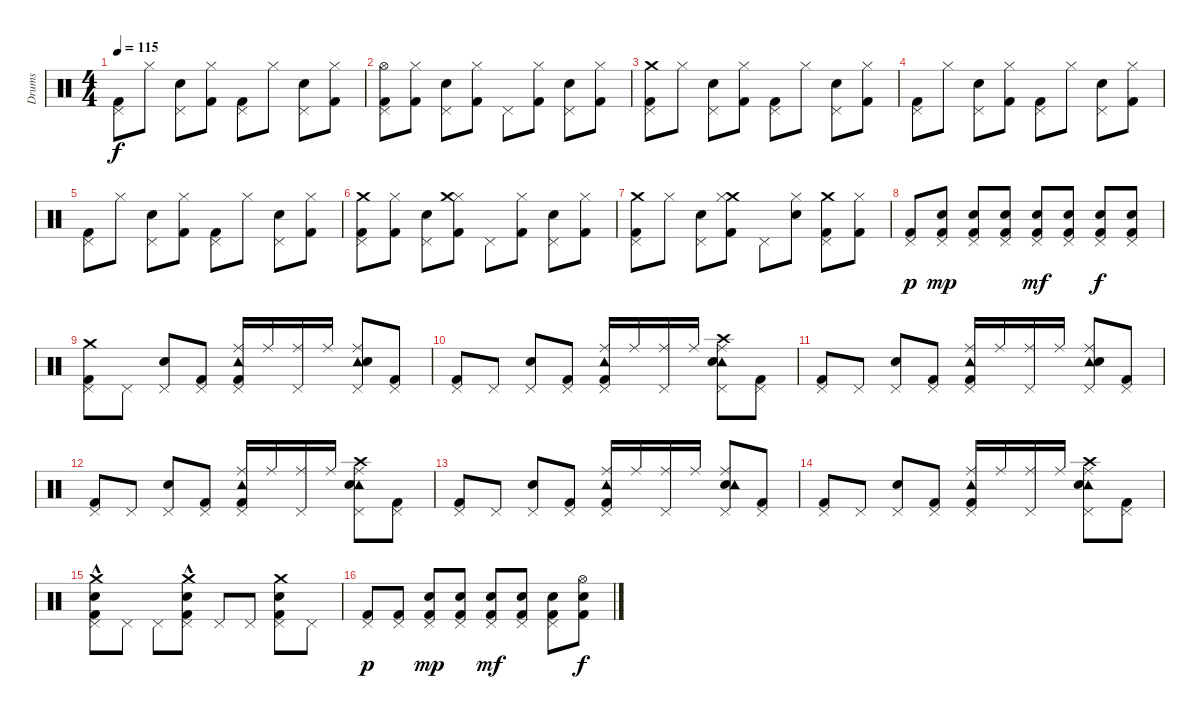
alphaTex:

\track ("Drums" "Drums") {instrument percussion}
\staff {score}
\articulation defaults
\ts (4 4)
\tempo 115
\clef neutral
\ks c
("Pedal Hi-Hat (hit)" "Kick (hit) 2").8{dy f} "Hi-Hat (closed)".8 ("Pedal Hi-Hat (hit)" "Snare (hit) 2").8 ("Hi-Hat (closed)" "Kick (hit) 2").8 ("Pedal Hi-Hat (hit)" "Kick (hit) 2").8 "Hi-Hat (closed)".8 ("Pedal Hi-Hat (hit)" "Snare (hit) 2").8 ("Hi-Hat (closed)" "Kick (hit) 2").8 |
("Hi-Hat (open)" "Pedal Hi-Hat (hit)" "Kick (hit) 2").8 ("Hi-Hat (closed)" "Kick (hit) 2").8 ("Pedal Hi-Hat (hit)" "Snare (hit) 2").8 ("Hi-Hat (closed)" "Kick (hit) 2").8 "Pedal Hi-Hat (hit)".8 ("Hi-Hat (closed)" "Kick (hit) 2").8 ("Pedal Hi-Hat (hit)" "Snare (hit) 2").8 ("Hi-Hat (closed)" "Kick (hit) 2").8 |
("Crash medium (hit)" "Kick (hit) 2" "Pedal Hi-Hat (hit)").8 "Hi-Hat (closed)".8 ("Snare (hit) 2" "Pedal Hi-Hat (hit)").8 ("Kick (hit) 2" "Hi-Hat (closed)").8 ("Kick (hit) 2" "Pedal Hi-Hat (hit)").8 "Hi-Hat (closed)".8 ("Snare (hit) 2" "Pedal Hi-Hat (hit)").8 ("Kick (hit) 2" "Hi-Hat (closed)").8 |
("Pedal Hi-Hat (hit)" "Kick (hit) 2").8 "Hi-Hat (closed)".8 ("Snare (hit) 2" "Pedal Hi-Hat (hit)").8 ("Kick (hit) 2" "Hi-Hat (closed)").8 ("Kick (hit) 2" "Pedal Hi-Hat (hit)").8 "Hi-Hat (closed)".8 ("Snare (hit) 2" "Pedal Hi-Hat (hit)").8 ("Kick (hit) 2" "Hi-Hat (closed)").8 |
("Kick (hit) 2" "Pedal Hi-Hat (hit)").8 "Hi-Hat (closed)".8 ("Snare (hit) 2" "Pedal Hi-Hat (hit)").8 ("Kick (hit) 2" "Hi-Hat (closed)").8 ("Kick (hit) 2" "Pedal Hi-Hat (hit)").8 "Hi-Hat (closed)".8 ("Snare (hit) 2" "Pedal Hi-Hat (hit)").8 ("Kick (hit) 2" "Hi-Hat (closed)").8 |
("Crash medium (hit)" "Kick (hit) 2" "Pedal Hi-Hat (hit)").8 ("Kick (hit) 2" "Hi-Hat (closed)").8 ("Snare (hit) 2" "Pedal Hi-Hat (hit)").8 ("Kick (hit) 2" "Hi-Hat (closed)" "Crash medium (hit)").8 "Pedal Hi-Hat (hit)".8 ("Kick (hit) 2" "Hi-Hat (closed)").8 ("Snare (hit) 2" "Pedal Hi-Hat (hit)").8 ("Kick (hit) 2" "Hi-Hat (closed)").8 |
("Crash medium (hit)" "Kick (hit) 2" "Pedal Hi-Hat (hit)").8 "Hi-Hat (closed)".8 ("Snare (hit) 2" "Pedal Hi-Hat (hit)").8 ("Crash medium (hit)" "Kick (hit) 2" "Hi-Hat (closed)").8 "Pedal Hi-Hat (hit)".8 ("Snare (hit) 2" "Hi-Hat (closed)").8 ("Crash medium (hit)" "Kick (hit) 2" "Pedal Hi-Hat (hit)").8 ("Kick (hit) 2" "Hi-Hat (closed)").8 |
("Pedal Hi-Hat (hit)" "Kick (hit) 2").8{dy p} ("Pedal Hi-Hat (hit)" "Kick (hit) 2" "Snare (hit) 2").8{dy mp} ("Pedal Hi-Hat (hit)" "Kick (hit) 2" "Snare (hit) 2").8 ("Pedal Hi-Hat (hit)" "Kick (hit) 2" "Snare (hit) 2").8 ("Pedal Hi-Hat (hit)" "Kick (hit) 2" "Snare (hit) 2").8{dy mf} ("Pedal Hi-Hat (hit)" "Kick (hit) 2" "Snare (hit) 2").8 ("Pedal Hi-Hat (hit)" "Kick (hit) 2" "Snare (hit) 2").8{dy f} ("Pedal Hi-Hat (hit)" "Kick (hit) 2" "Snare (hit) 2").8 |
("Crash medium (hit)" "Pedal Hi-Hat (hit)" "Kick (hit) 2").8 "Pedal Hi-Hat (hit)".8 ("Pedal Hi-Hat (hit)" "Snare (hit) 2").8 ("Pedal Hi-Hat (hit)" "Kick (hit) 2").8 ("Tambourine (hit)" "Ride (middle)" "Pedal Hi-Hat (hit)" "Kick (hit) 2").16 "Ride (middle)".16 ("Ride (middle)" "Pedal Hi-Hat (hit)").16 "Ride (middle)".16 ("Tambourine (hit)" "Ride (middle)" "Pedal Hi-Hat (hit)" "Snare (hit) 2").8 ("Pedal Hi-Hat (hit)" "Kick (hit) 2").8 |
("Pedal Hi-Hat (hit)" "Kick (hit) 2").8 "Pedal Hi-Hat (hit)".8 ("Pedal Hi-Hat (hit)" "Snare (hit) 2").8 ("Pedal Hi-Hat (hit)" "Kick (hit) 2").8 ("Ride (middle)" "Tambourine (hit)" "Pedal Hi-Hat (hit)" "Kick (hit) 2").16 "Ride (middle)".16 ("Ride (middle)" "Pedal Hi-Hat (hit)").16 "Ride (middle)".16 ("Ride (middle)" "Tambourine (hit)" "Crash high (hit)" "Pedal Hi-Hat (hit)" "Snare (hit) 2").8 ("Pedal Hi-Hat (hit)" "Kick (hit) 2").8 |
("Pedal Hi-Hat (hit)" "Kick (hit) 2").8 "Pedal Hi-Hat (hit)".8 ("Pedal Hi-Hat (hit)" "Snare (hit) 2").8 ("Pedal Hi-Hat (hit)" "Kick (hit) 2").8 ("Ride (middle)" "Tambourine (hit)" "Pedal Hi-Hat (hit)" "Kick (hit) 2").16 "Ride (middle)".16 ("Ride (middle)" "Pedal Hi-Hat (hit)").16 "Ride (middle)".16 ("Ride (middle)" "Tambourine (hit)" "Pedal Hi-Hat (hit)" "Snare (hit) 2").8 ("Pedal Hi-Hat (hit)" "Kick (hit) 2").8 |
("Pedal Hi-Hat (hit)" "Kick (hit) 2").8 "Pedal Hi-Hat (hit)".8 ("Pedal Hi-Hat (hit)" "Snare (hit) 2").8 ("Pedal Hi-Hat (hit)" "Kick (hit) 2").8 ("Ride (middle)" "Tambourine (hit)" "Pedal Hi-Hat (hit)" "Kick (hit) 2").16 "Ride (middle)".16 ("Ride (middle)" "Pedal Hi-Hat (hit)").16 "Ride (middle)".16 ("Ride (middle)" "Tambourine (hit)" "Crash high (hit)" "Pedal Hi-Hat (hit)" "Snare (hit) 2").8 ("Pedal Hi-Hat (hit)" "Kick (hit) 2").8 |
("Pedal Hi-Hat (hit)" "Kick (hit) 2").8 "Pedal Hi-Hat (hit)".8 ("Pedal Hi-Hat (hit)" "Snare (hit) 2").8 ("Pedal Hi-Hat (hit)" "Kick (hit) 2").8 ("Ride (middle)" "Tambourine (hit)" "Pedal Hi-Hat (hit)" "Kick (hit) 2").16 "Ride (middle)".16 ("Ride (middle)" "Pedal Hi-Hat (hit)").16 "Ride (middle)".16 ("Ride (middle)" "Pedal Hi-Hat (hit)" "Snare (hit) 2" "Tambourine (hit)").8 ("Pedal Hi-Hat (hit)" "Kick (hit) 2").8 |
("Pedal Hi-Hat (hit)" "Kick (hit) 2").8 "Pedal Hi-Hat (hit)".8 ("Pedal Hi-Hat (hit)" "Snare (hit) 2").8 ("Pedal Hi-Hat (hit)" "Kick (hit) 2").8 ("Ride (middle)" "Tambourine (hit)" "Pedal Hi-Hat (hit)" "Kick (hit) 2").16 "Ride (middle)".16 ("Ride (middle)" "Pedal Hi-Hat (hit)").16 "Ride (middle)".16 ("Ride (middle)" "Tambourine (hit)" "Crash high (hit)" "Pedal Hi-Hat (hit)" "Snare (hit) 2").8 ("Pedal Hi-Hat (hit)" "Kick (hit) 2").8 |
("Pedal Hi-Hat (hit)" "Crash medium (hit)"{hac} "Snare (hit) 2"{hac} "Kick (hit) 2"{hac}).8 "Pedal Hi-Hat (hit)".8 "Pedal Hi-Hat (hit)".8 ("Pedal Hi-Hat (hit)" "Crash medium (hit)"{hac} "Kick (hit) 2"{hac} "Snare (hit) 2"{hac}).8 "Pedal Hi-Hat (hit)".8 "Pedal Hi-Hat (hit)".8 ("Pedal Hi-Hat (hit)" "Crash medium (hit)" "Kick (hit) 2" "Snare (hit) 2").8 "Pedal Hi-Hat (hit)".8 |
("Kick (hit) 2" "Pedal Hi-Hat (hit)").8{dy p} ("Kick (hit) 2" "Pedal Hi-Hat (hit)").8 ("Pedal Hi-Hat (hit)" "Kick (hit) 2" "Snare (hit) 2").8{dy mp} ("Pedal Hi-Hat (hit)" "Kick (hit) 2" "Snare (hit) 2").8 ("Pedal Hi-Hat (hit)" "Kick (hit) 2" "Snare (hit) 2").8{dy mf} ("Kick (hit) 2" "Snare (hit) 2" "Pedal Hi-Hat (hit)").8 ("Pedal Hi-Hat (hit)" "Kick (hit) 2" "Snare (hit) 2").8 ("Kick (hit) 2" "Snare (hit) 2" "Hi-Hat (open)").8{dy f}
